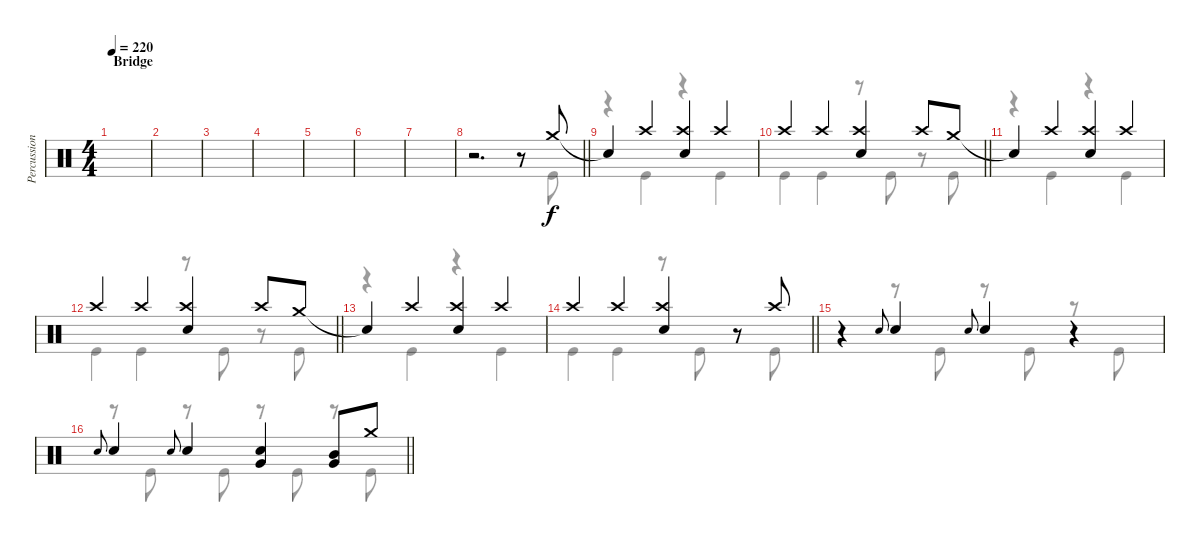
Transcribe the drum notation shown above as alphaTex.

\track ("Percussion" "Percussion") {instrument percussion}
\staff {score}
\articulation defaults
\voice
\ts (4 4)
\section ("" "Bridge")
\tempo 220
\clef neutral
\ks c
|
|
|
|
|
|
|
\barLineRight lightlight
r.2{d} r.8 "Crash medium (hit)".8 |
\section ("" "")
"Snare (hit)"{t}.4 "Crash high (hit)".4 ("Crash high (hit)" "Electric Snare (hit)").4 "Crash high (hit)".4 |
\barLineRight lightlight "Crash high (hit)".4 "Crash high (hit)".4
("Crash high (hit)" "Electric Snare (hit)").4 "Crash high (hit)".8 "Crash medium (hit)".8 |
"Snare (hit)"{t}.4 "Crash high (hit)".4 ("Crash high (hit)" "Electric Snare (hit)").4 "Crash high (hit)".4 |
\barLineRight lightlight "Crash high (hit)".4 "Crash high (hit)".4
("Crash high (hit)" "Electric Snare (hit)").4 "Crash high (hit)".8 "Crash medium (hit)".8 |
"Snare (hit)"{t}.4 "Crash high (hit)".4 ("Crash high (hit)" "Electric Snare (hit)").4 "Crash high (hit)".4 |
\barLineRight lightlight "Crash high (hit)".4 "Crash high (hit)".4
("Crash high (hit)" "Electric Snare (hit)").4 r.8 "Crash high (hit)".8 |
r.4 "Electric Snare (hit)".8{gr onbeat} "Electric Snare (hit)".4 "Electric Snare (hit)".8{gr onbeat} "Electric Snare (hit)".4 r.4 |
\barLineRight lightlight "Electric Snare (hit)".8{gr onbeat} "Electric Snare (hit)".4 "Electric Snare (hit)".8{gr onbeat} "Electric Snare (hit)".4
("Very Low Tom (hit)" "Electric Snare (hit)").4 ("Mid Tom (hit)" "Very Low Tom (hit)").8 "Crash medium (hit)".8
\voice
\clef neutral
\ottava regular
\simile none
\ks c
|
|
|
|
|
|
|
\barLineRight lightlight
r.2{d} r.8 "Kick (hit)".8 |
r.4 "Kick (hit)".4 r.4 "Kick (hit)".4 |
\barLineRight lightlight "Kick (hit)".4 "Kick (hit)".4
r.8 "Kick (hit)".8 r.8 "Kick (hit)".8 |
r.4 "Kick (hit)".4 r.4 "Kick (hit)".4 |
\barLineRight lightlight "Kick (hit)".4 "Kick (hit)".4
r.8 "Kick (hit)".8 r.8 "Kick (hit)".8 |
r.4 "Kick (hit)".4 r.4 "Kick (hit)".4 |
\barLineRight lightlight "Kick (hit)".4 "Kick (hit)".4
r.8 "Kick (hit)".8 r.8 "Kick (hit)".8 |
r.4 r.8 "Kick (hit)".8 r.8 "Kick (hit)".8 r.8 "Kick (hit)".8 |
\barLineRight lightlight
r.8 "Kick (hit)".8 r.8 "Kick (hit)".8 r.8 "Kick (hit)".8 r.8 "Kick (hit)".8
